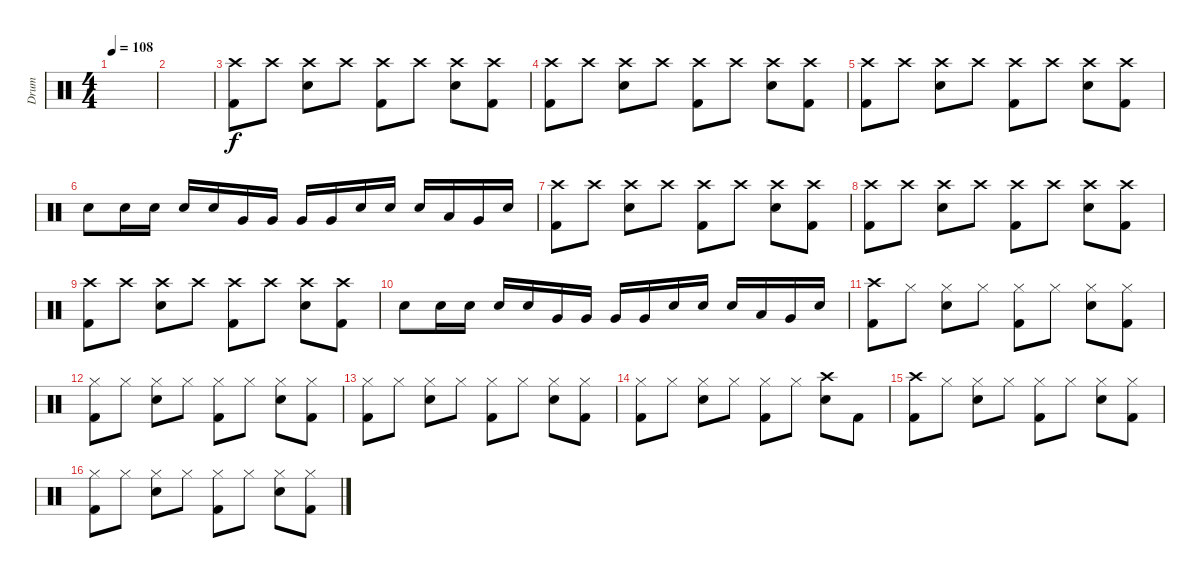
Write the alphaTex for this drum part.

\track ("Drum" "Drum") {instrument percussion}
\staff {score}
\articulation defaults
\ts (4 4)
\tempo 108
\clef neutral
\ks c
|
|
("Crash high (hit)" "Kick (hit) 2").8 "Crash high (hit)".8 ("Crash high (hit)" "Electric Snare (hit)").8 "Crash high (hit)".8 ("Crash high (hit)" "Kick (hit) 2").8 "Crash high (hit)".8 ("Crash high (hit)" "Electric Snare (hit)").8 ("Crash high (hit)" "Kick (hit) 2").8 |
("Crash high (hit)" "Kick (hit) 2").8 "Crash high (hit)".8 ("Crash high (hit)" "Electric Snare (hit)").8 "Crash high (hit)".8 ("Crash high (hit)" "Kick (hit) 2").8 "Crash high (hit)".8 ("Crash high (hit)" "Electric Snare (hit)").8 ("Crash high (hit)" "Kick (hit) 2").8 |
("Crash high (hit)" "Kick (hit) 2").8 "Crash high (hit)".8 ("Crash high (hit)" "Electric Snare (hit)").8 "Crash high (hit)".8 ("Crash high (hit)" "Kick (hit) 2").8 "Crash high (hit)".8 ("Crash high (hit)" "Electric Snare (hit)").8 ("Crash high (hit)" "Kick (hit) 2").8 |
"Electric Snare (hit)".8 "Electric Snare (hit)".16 "Electric Snare (hit)".16 "Electric Snare (hit)".16 "Electric Snare (hit)".16 "Very Low Tom (hit)".16 "Very Low Tom (hit)".16 "Very Low Tom (hit)".16 "Very Low Tom (hit)".16 "Electric Snare (hit)".16 "Electric Snare (hit)".16 "Electric Snare (hit)".16 "Low Tom (hit)".16 "Very Low Tom (hit)".16 "Electric Snare (hit)".16 |
("Crash high (hit)" "Kick (hit) 2").8 "Crash high (hit)".8 ("Crash high (hit)" "Electric Snare (hit)").8 "Crash high (hit)".8 ("Crash high (hit)" "Kick (hit) 2").8 "Crash high (hit)".8 ("Crash high (hit)" "Electric Snare (hit)").8 ("Crash high (hit)" "Kick (hit) 2").8 |
("Crash high (hit)" "Kick (hit) 2").8 "Crash high (hit)".8 ("Crash high (hit)" "Electric Snare (hit)").8 "Crash high (hit)".8 ("Crash high (hit)" "Kick (hit) 2").8 "Crash high (hit)".8 ("Crash high (hit)" "Electric Snare (hit)").8 ("Crash high (hit)" "Kick (hit) 2").8 |
("Crash high (hit)" "Kick (hit) 2").8 "Crash high (hit)".8 ("Crash high (hit)" "Electric Snare (hit)").8 "Crash high (hit)".8 ("Crash high (hit)" "Kick (hit) 2").8 "Crash high (hit)".8 ("Crash high (hit)" "Electric Snare (hit)").8 ("Crash high (hit)" "Kick (hit) 2").8 |
"Electric Snare (hit)".8 "Electric Snare (hit)".16 "Electric Snare (hit)".16 "Electric Snare (hit)".16 "Electric Snare (hit)".16 "Very Low Tom (hit)".16 "Very Low Tom (hit)".16 "Very Low Tom (hit)".16 "Very Low Tom (hit)".16 "Electric Snare (hit)".16 "Electric Snare (hit)".16 "Electric Snare (hit)".16 "Low Tom (hit)".16 "Very Low Tom (hit)".16 "Electric Snare (hit)".16 |
("Crash high (hit)" "Kick (hit) 2").8 "Hi-Hat (closed)".8 ("Hi-Hat (closed)" "Electric Snare (hit)").8 "Hi-Hat (closed)".8 ("Hi-Hat (closed)" "Kick (hit) 2").8 "Hi-Hat (closed)".8 ("Hi-Hat (closed)" "Electric Snare (hit)").8 ("Hi-Hat (closed)" "Kick (hit) 2").8 |
("Hi-Hat (closed)" "Kick (hit) 2").8 "Hi-Hat (closed)".8 ("Hi-Hat (closed)" "Electric Snare (hit)").8 "Hi-Hat (closed)".8 ("Hi-Hat (closed)" "Kick (hit) 2").8 "Hi-Hat (closed)".8 ("Hi-Hat (closed)" "Electric Snare (hit)").8 ("Hi-Hat (closed)" "Kick (hit) 2").8 |
("Hi-Hat (closed)" "Kick (hit) 2").8 "Hi-Hat (closed)".8 ("Hi-Hat (closed)" "Electric Snare (hit)").8 "Hi-Hat (closed)".8 ("Hi-Hat (closed)" "Kick (hit) 2").8 "Hi-Hat (closed)".8 ("Hi-Hat (closed)" "Electric Snare (hit)").8 ("Hi-Hat (closed)" "Kick (hit) 2").8 |
("Hi-Hat (closed)" "Kick (hit) 2").8 "Hi-Hat (closed)".8 ("Hi-Hat (closed)" "Electric Snare (hit)").8 "Hi-Hat (closed)".8 ("Hi-Hat (closed)" "Kick (hit) 2").8 "Hi-Hat (closed)".8 ("Crash high (hit)" "Electric Snare (hit)").8 "Kick (hit) 2".8 |
("Crash high (hit)" "Kick (hit) 2").8 "Hi-Hat (closed)".8 ("Hi-Hat (closed)" "Electric Snare (hit)").8 "Hi-Hat (closed)".8 ("Hi-Hat (closed)" "Kick (hit) 2").8 "Hi-Hat (closed)".8 ("Hi-Hat (closed)" "Electric Snare (hit)").8 ("Hi-Hat (closed)" "Kick (hit) 2").8 |
("Hi-Hat (closed)" "Kick (hit) 2").8 "Hi-Hat (closed)".8 ("Hi-Hat (closed)" "Electric Snare (hit)").8 "Hi-Hat (closed)".8 ("Hi-Hat (closed)" "Kick (hit) 2").8 "Hi-Hat (closed)".8 ("Hi-Hat (closed)" "Electric Snare (hit)").8 ("Hi-Hat (closed)" "Kick (hit) 2").8
